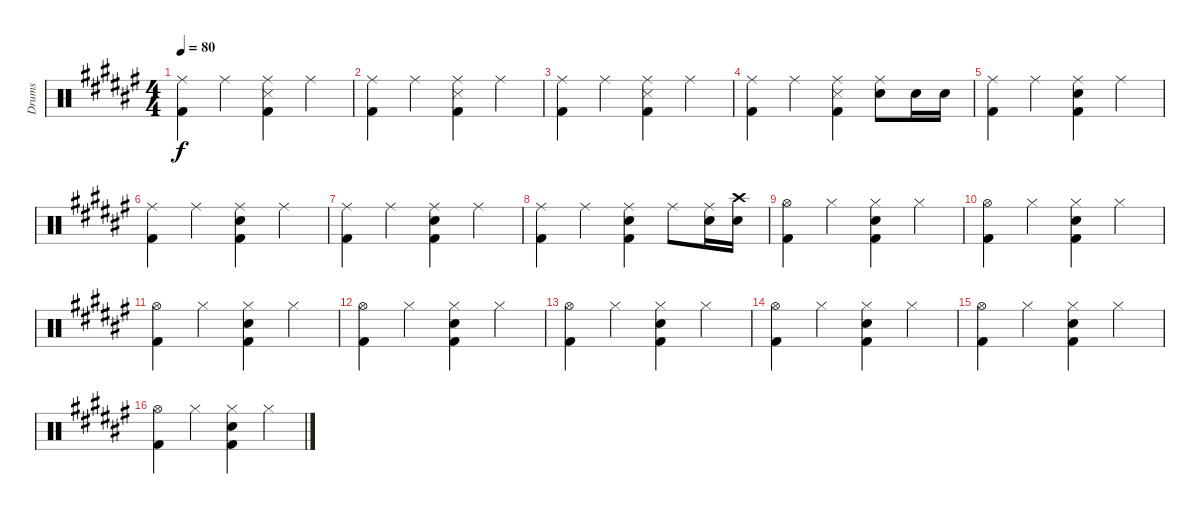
\track ("Drums" "Drums") {instrument percussion}
\staff {score}
\articulation defaults
\ts (4 4)
\tempo 80
\clef neutral
\ks f#
("Ride (middle)" "Kick (hit) 2").4{dy f} "Ride (middle)".4 ("Ride (middle)" "Snare (side stick) 3" "Kick (hit) 2").4 "Ride (middle)".4 |
("Ride (middle)" "Kick (hit) 2").4 "Ride (middle)".4 ("Ride (middle)" "Snare (side stick) 3" "Kick (hit) 2").4 "Ride (middle)".4 |
("Ride (middle)" "Kick (hit) 2").4 "Ride (middle)".4 ("Ride (middle)" "Snare (side stick) 3" "Kick (hit) 2").4 "Ride (middle)".4 |
("Ride (middle)" "Kick (hit) 2").4 "Ride (middle)".4 ("Ride (middle)" "Snare (side stick) 3" "Kick (hit) 2").4 ("Ride (middle)" "Snare (hit) 2").8 "Snare (hit) 2".16 "Snare (hit) 2".16 |
("Ride (middle)" "Kick (hit) 2").4 "Ride (middle)".4 ("Ride (middle)" "Snare (hit) 2" "Kick (hit) 2").4 "Ride (middle)".4 |
("Ride (middle)" "Kick (hit) 2").4 "Ride (middle)".4 ("Ride (middle)" "Snare (hit) 2" "Kick (hit) 2").4 "Ride (middle)".4 |
("Ride (middle)" "Kick (hit) 2").4 "Ride (middle)".4 ("Ride (middle)" "Snare (hit) 2" "Kick (hit) 2").4 "Ride (middle)".4 |
("Ride (middle)" "Kick (hit) 2").4 "Ride (middle)".4 ("Ride (middle)" "Snare (hit) 2" "Kick (hit) 2").4 "Ride (middle)".8 ("Ride (middle)" "Snare (hit) 2").16 ("Crash high (hit)" "Snare (hit) 2").16 |
("Hi-Hat (open)" "Kick (hit) 2").4 "Hi-Hat (closed)".4 ("Hi-Hat (closed)" "Snare (hit) 2" "Kick (hit) 2").4 "Hi-Hat (closed)".4 |
("Hi-Hat (open)" "Kick (hit) 2").4 "Hi-Hat (closed)".4 ("Hi-Hat (closed)" "Snare (hit) 2" "Kick (hit) 2").4 "Hi-Hat (closed)".4 |
("Hi-Hat (open)" "Kick (hit) 2").4 "Hi-Hat (closed)".4 ("Hi-Hat (closed)" "Snare (hit) 2" "Kick (hit) 2").4 "Hi-Hat (closed)".4 |
("Hi-Hat (open)" "Kick (hit) 2").4 "Hi-Hat (closed)".4 ("Hi-Hat (closed)" "Snare (hit) 2" "Kick (hit) 2").4 "Hi-Hat (closed)".4 |
("Hi-Hat (open)" "Kick (hit) 2").4 "Hi-Hat (closed)".4 ("Hi-Hat (closed)" "Snare (hit) 2" "Kick (hit) 2").4 "Hi-Hat (closed)".4 |
("Hi-Hat (open)" "Kick (hit) 2").4 "Hi-Hat (closed)".4 ("Hi-Hat (closed)" "Snare (hit) 2" "Kick (hit) 2").4 "Hi-Hat (closed)".4 |
("Hi-Hat (open)" "Kick (hit) 2").4 "Hi-Hat (closed)".4 ("Hi-Hat (closed)" "Snare (hit) 2" "Kick (hit) 2").4 "Hi-Hat (closed)".4 |
("Hi-Hat (open)" "Kick (hit) 2").4 "Hi-Hat (closed)".4 ("Hi-Hat (closed)" "Snare (hit) 2" "Kick (hit) 2").4 "Hi-Hat (closed)".4
